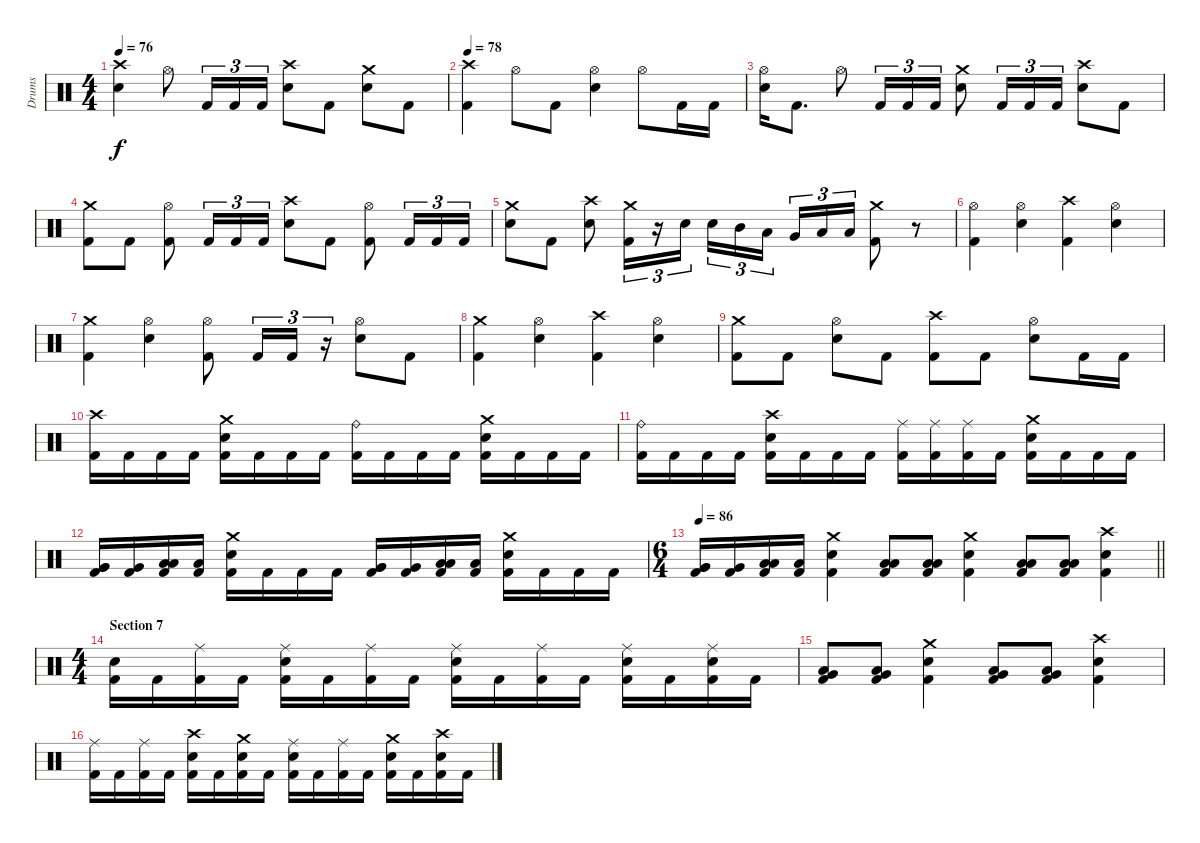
\track ("Drums" "Drums") {instrument percussion}
\staff {score}
\articulation defaults
\ts (4 4)
\tempo 76
\clef neutral
\ks c
("Crash high (hit)" "Electric Snare (hit)").4{dy f} "Hi-Hat (open)".8 "Kick (hit) 2".16{tu (3 2)} "Kick (hit) 2".16{tu (3 2)} "Kick (hit) 2".16{tu (3 2)} ("Crash high (hit)" "Electric Snare (hit)").8 "Kick (hit) 2".8 ("Crash medium (hit)" "Electric Snare (hit)").8 "Kick (hit) 2".8 |
\tempo 78
("Crash high (hit)" "Kick (hit) 2").4 "Hi-Hat (open)".8 "Kick (hit) 2".8 ("Hi-Hat (open)" "Electric Snare (hit)").4 "Hi-Hat (open)".8 "Kick (hit) 2".16 "Kick (hit) 2".16 |
("Hi-Hat (open)" "Electric Snare (hit)").16 "Kick (hit) 2".8{d} "Hi-Hat (open)".8 "Kick (hit) 2".16{tu (3 2)} "Kick (hit) 2".16{tu (3 2)} "Kick (hit) 2".16{tu (3 2)} ("Crash medium (hit)" "Electric Snare (hit)").8 "Kick (hit) 2".16{tu (3 2)} "Kick (hit) 2".16{tu (3 2)} "Kick (hit) 2".16{tu (3 2)} ("Crash high (hit)" "Electric Snare (hit)").8 "Kick (hit) 2".8 |
("Crash medium (hit)" "Kick (hit) 2").8 "Kick (hit) 2".8 ("Hi-Hat (open)" "Kick (hit) 2").8 "Kick (hit) 2".16{tu (3 2)} "Kick (hit) 2".16{tu (3 2)} "Kick (hit) 2".16{tu (3 2)} ("Crash high (hit)" "Electric Snare (hit)").8 "Kick (hit) 2".8 ("Hi-Hat (open)" "Kick (hit) 2").8 "Kick (hit) 2".16{tu (3 2)} "Kick (hit) 2".16{tu (3 2)} "Kick (hit) 2".16{tu (3 2)} |
("Crash medium (hit)" "Electric Snare (hit)").8 "Kick (hit) 2".8 ("Crash high (hit)" "Electric Snare (hit)").8 ("Crash medium (hit)" "Kick (hit) 2").16{tu (3 2)} r.16{tu (3 2)} "Electric Snare (hit)".16{tu (3 2)} "Electric Snare (hit)".16{tu (3 2)} "Mid Tom (hit)".16{tu (3 2)} "Low Tom (hit)".16{tu (3 2) beam splitsecondary} "Very Low Tom (hit)".16{tu (3 2)} "Low Floor Tom (hit)".16{tu (3 2)} "Low Floor Tom (hit)".16{tu (3 2)} ("Crash medium (hit)" "Kick (hit) 2").8 r.8 |
("Hi-Hat (open)" "Kick (hit) 2").4 ("Hi-Hat (open)" "Electric Snare (hit)").4 ("Crash high (hit)" "Kick (hit) 2").4 ("Hi-Hat (open)" "Electric Snare (hit)").4 |
("Crash medium (hit)" "Kick (hit) 2").4 ("Hi-Hat (open)" "Electric Snare (hit)").4 ("Hi-Hat (open)" "Kick (hit) 2").8 "Kick (hit) 2".16{tu (3 2)} "Kick (hit) 2".16{tu (3 2)} r.16{tu (3 2)} ("Hi-Hat (open)" "Electric Snare (hit)").8 "Kick (hit) 2".8 |
("Crash medium (hit)" "Kick (hit) 2").4 ("Hi-Hat (open)" "Electric Snare (hit)").4 ("Crash high (hit)" "Kick (hit) 2").4 ("Hi-Hat (open)" "Electric Snare (hit)").4 |
("Crash medium (hit)" "Kick (hit) 2").8 "Kick (hit) 2".8 ("Hi-Hat (open)" "Electric Snare (hit)").8 "Kick (hit) 2".8 ("Crash high (hit)" "Kick (hit) 2").8 "Kick (hit) 2".8 ("Hi-Hat (open)" "Electric Snare (hit)").8 "Kick (hit) 2".16 "Kick (hit) 2".16 |
("Crash high (hit)" "Kick (hit) 2").16 "Kick (hit) 2".16 "Kick (hit) 2".16 "Kick (hit) 2".16 ("Crash medium (hit)" "Electric Snare (hit)" "Kick (hit) 2").16 "Kick (hit) 2".16 "Kick (hit) 2".16 "Kick (hit) 2".16 ("Ride (bell)" "Kick (hit) 2").16 "Kick (hit) 2".16 "Kick (hit) 2".16 "Kick (hit) 2".16 ("Crash medium (hit)" "Electric Snare (hit)" "Kick (hit) 2").16 "Kick (hit) 2".16 "Kick (hit) 2".16 "Kick (hit) 2".16 |
("Ride (bell)" "Kick (hit) 2").16 "Kick (hit) 2".16 "Kick (hit) 2".16 "Kick (hit) 2".16 ("Crash high (hit)" "Electric Snare (hit)" "Kick (hit) 2").16 "Kick (hit) 2".16 "Kick (hit) 2".16 "Kick (hit) 2".16 ("Ride (middle)" "Kick (hit) 2").16 ("Ride (middle)" "Kick (hit) 2").16 ("Ride (middle)" "Kick (hit) 2").16 "Kick (hit) 2".16 ("Crash medium (hit)" "Electric Snare (hit)" "Kick (hit) 2").16 "Kick (hit) 2".16 "Kick (hit) 2".16 "Kick (hit) 2".16 |
("Very Low Tom (hit)" "Very Low Tom (hit)" "Kick (hit) 2").16 ("Very Low Tom (hit)" "Kick (hit) 2").16 ("Low Floor Tom (hit)" "Low Floor Tom (hit)" "Kick (hit) 2").16 ("Low Floor Tom (hit)" "Kick (hit) 2").16 ("Crash medium (hit)" "Electric Snare (hit)" "Kick (hit) 2").16 "Kick (hit) 2".16 "Kick (hit) 2".16 "Kick (hit) 2".16 ("Very Low Tom (hit)" "Very Low Tom (hit)" "Kick (hit) 2").16 ("Very Low Tom (hit)" "Kick (hit) 2").16 ("Low Floor Tom (hit)" "Low Floor Tom (hit)" "Kick (hit) 2").16 ("Low Floor Tom (hit)" "Kick (hit) 2").16 ("Crash medium (hit)" "Electric Snare (hit)" "Kick (hit) 2").16 "Kick (hit) 2".16 "Kick (hit) 2".16 "Kick (hit) 2".16 |
\ts (6 4)
\tempo 86
\barLineRight lightlight
("Very Low Tom (hit)" "Very Low Tom (hit)" "Kick (hit) 2").16 ("Very Low Tom (hit)" "Kick (hit) 2").16 ("Low Floor Tom (hit)" "Low Floor Tom (hit)" "Kick (hit) 2").16 ("Low Floor Tom (hit)" "Kick (hit) 2").16 ("Crash medium (hit)" "Electric Snare (hit)" "Kick (hit) 2").4 ("Low Floor Tom (hit)" "Low Floor Tom (hit)" "Kick (hit) 2").8 ("Low Floor Tom (hit)" "Low Floor Tom (hit)" "Kick (hit) 2").8 ("Crash medium (hit)" "Electric Snare (hit)" "Kick (hit) 2").4 ("Low Floor Tom (hit)" "Low Floor Tom (hit)" "Kick (hit) 2").8 ("Low Floor Tom (hit)" "Low Floor Tom (hit)" "Kick (hit) 2").8 ("Crash high (hit)" "Electric Snare (hit)" "Kick (hit) 2").4 |
\ts (4 4)
\section ("" "Section 7")
("Electric Snare (hit)" "Kick (hit) 2").16 "Kick (hit) 2".16 ("Ride (middle)" "Kick (hit) 2").16 "Kick (hit) 2".16 ("Ride (middle)" "Electric Snare (hit)" "Kick (hit) 2").16 "Kick (hit) 2".16 ("Ride (middle)" "Kick (hit) 2").16 "Kick (hit) 2".16 ("Ride (middle)" "Electric Snare (hit)" "Kick (hit) 2").16 "Kick (hit) 2".16 ("Ride (middle)" "Kick (hit) 2").16 "Kick (hit) 2".16 ("Ride (middle)" "Electric Snare (hit)" "Kick (hit) 2").16 "Kick (hit) 2".16 ("Ride (middle)" "Electric Snare (hit)" "Kick (hit) 2").16 "Kick (hit) 2".16 |
("Low Tom (hit)" "Very Low Tom (hit)" "Kick (hit) 2").8 ("Very Low Tom (hit)" "Low Floor Tom (hit)" "Kick (hit) 2").8 ("Crash medium (hit)" "Electric Snare (hit)" "Kick (hit) 2").4 ("Low Tom (hit)" "Very Low Tom (hit)" "Kick (hit) 2").8 ("Very Low Tom (hit)" "Low Floor Tom (hit)" "Kick (hit) 2").8 ("Crash high (hit)" "Electric Snare (hit)" "Kick (hit) 2").4 |
("Ride (middle)" "Kick (hit) 2").16 "Kick (hit) 2".16 ("Ride (middle)" "Kick (hit) 2").16 "Kick (hit) 2".16 ("Crash high (hit)" "Electric Snare (hit)" "Kick (hit) 2").16 "Kick (hit) 2".16 ("Crash medium (hit)" "Electric Snare (hit)" "Kick (hit) 2").16 "Kick (hit) 2".16 ("Ride (middle)" "Electric Snare (hit)" "Kick (hit) 2").16 "Kick (hit) 2".16 ("Ride (middle)" "Kick (hit) 2").16 "Kick (hit) 2".16 ("Crash medium (hit)" "Electric Snare (hit)" "Kick (hit) 2").16 "Kick (hit) 2".16 ("Crash high (hit)" "Electric Snare (hit)" "Kick (hit) 2").16 "Kick (hit) 2".16
